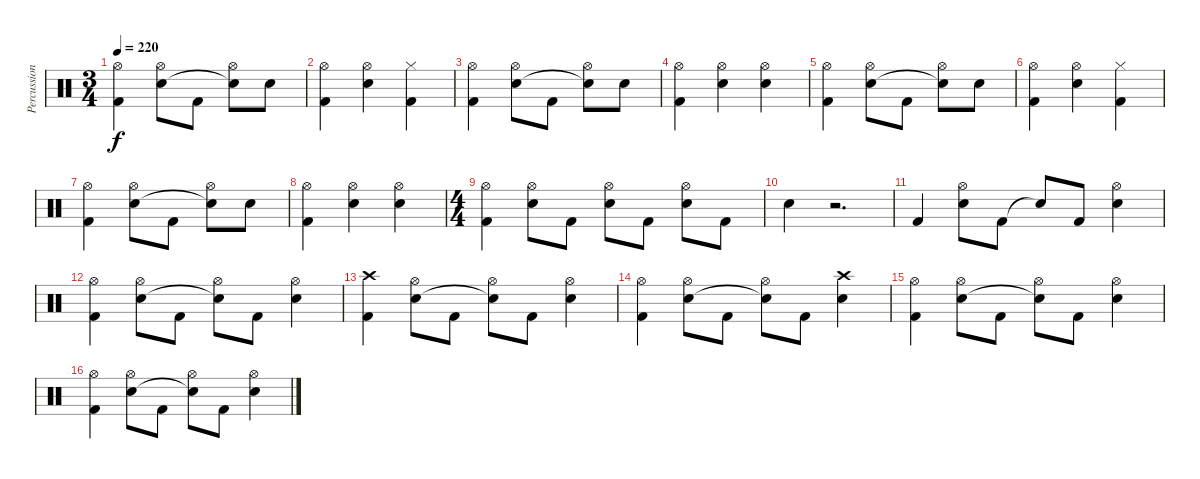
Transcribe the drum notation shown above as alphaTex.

\track ("Percussion" "Percussion") {instrument percussion}
\staff {score}
\articulation defaults
\ts (3 4)
\tempo 220
\clef neutral
\ks c
("Hi-Hat (open)" "Kick (hit) 2").4{dy f} ("Hi-Hat (open)" "Snare (hit) 2").8 "Kick (hit) 2".8 ("Hi-Hat (open)" "Snare (hit) 2"{t}).8 "Snare (hit) 2".8 |
("Hi-Hat (open)" "Kick (hit) 2").4 ("Hi-Hat (open)" "Snare (hit) 2").4 ("Hi-Hat (closed)" "Kick (hit) 2").4 |
("Hi-Hat (open)" "Kick (hit) 2").4 ("Hi-Hat (open)" "Snare (hit) 2").8 "Kick (hit) 2".8 ("Hi-Hat (open)" "Snare (hit) 2"{t}).8 "Snare (hit) 2".8 |
("Hi-Hat (open)" "Kick (hit) 2").4 ("Hi-Hat (open)" "Snare (hit) 2").4 ("Hi-Hat (open)" "Snare (hit) 2").4 |
("Hi-Hat (open)" "Kick (hit) 2").4 ("Hi-Hat (open)" "Snare (hit) 2").8 "Kick (hit) 2".8 ("Hi-Hat (open)" "Snare (hit) 2"{t}).8 "Snare (hit) 2".8 |
("Hi-Hat (open)" "Kick (hit) 2").4 ("Hi-Hat (open)" "Snare (hit) 2").4 ("Hi-Hat (closed)" "Kick (hit) 2").4 |
("Hi-Hat (open)" "Kick (hit) 2").4 ("Hi-Hat (open)" "Snare (hit) 2").8 "Kick (hit) 2".8 ("Hi-Hat (open)" "Snare (hit) 2"{t}).8 "Snare (hit) 2".8 |
("Hi-Hat (open)" "Kick (hit) 2").4 ("Hi-Hat (open)" "Snare (hit) 2").4 ("Hi-Hat (open)" "Snare (hit) 2").4 |
\ts (4 4)
("Hi-Hat (open)" "Kick (hit) 2").4 ("Hi-Hat (open)" "Snare (hit) 2").8 "Kick (hit) 2".8 ("Hi-Hat (open)" "Snare (hit) 2").8 "Kick (hit) 2".8 ("Hi-Hat (open)" "Snare (hit) 2").8 "Kick (hit) 2".8 |
"Snare (hit) 2".4 r.2{d} |
"Kick (hit) 2".4 ("Hi-Hat (open)" "Snare (hit) 2").8 "Kick (hit) 2".8 "Snare (hit)"{t}.8 "Kick (hit) 2".8 ("Hi-Hat (open)" "Snare (hit) 2").4 |
("Hi-Hat (open)" "Kick (hit) 2").4 ("Hi-Hat (open)" "Snare (hit) 2").8 "Kick (hit) 2".8 ("Hi-Hat (open)" "Snare (hit)"{t}).8 "Kick (hit) 2".8 ("Hi-Hat (open)" "Snare (hit) 2").4 |
("Crash high (hit)" "Kick (hit) 2").4 ("Hi-Hat (open)" "Snare (hit) 2").8 "Kick (hit) 2".8 ("Hi-Hat (open)" "Snare (hit)"{t}).8 "Kick (hit) 2".8 ("Hi-Hat (open)" "Snare (hit) 2").4 |
("Hi-Hat (open)" "Kick (hit) 2").4 ("Hi-Hat (open)" "Snare (hit) 2").8 "Kick (hit) 2".8 ("Hi-Hat (open)" "Snare (hit)"{t}).8 "Kick (hit) 2".8 ("Crash high (hit)" "Snare (hit) 2").4 |
("Hi-Hat (open)" "Kick (hit) 2").4 ("Hi-Hat (open)" "Snare (hit) 2").8 "Kick (hit) 2".8 ("Hi-Hat (open)" "Snare (hit)"{t}).8 "Kick (hit) 2".8 ("Hi-Hat (open)" "Snare (hit) 2").4 |
("Hi-Hat (open)" "Kick (hit) 2").4 ("Hi-Hat (open)" "Snare (hit) 2").8 "Kick (hit) 2".8 ("Hi-Hat (open)" "Snare (hit)"{t}).8 "Kick (hit) 2".8 ("Hi-Hat (open)" "Snare (hit) 2").4
